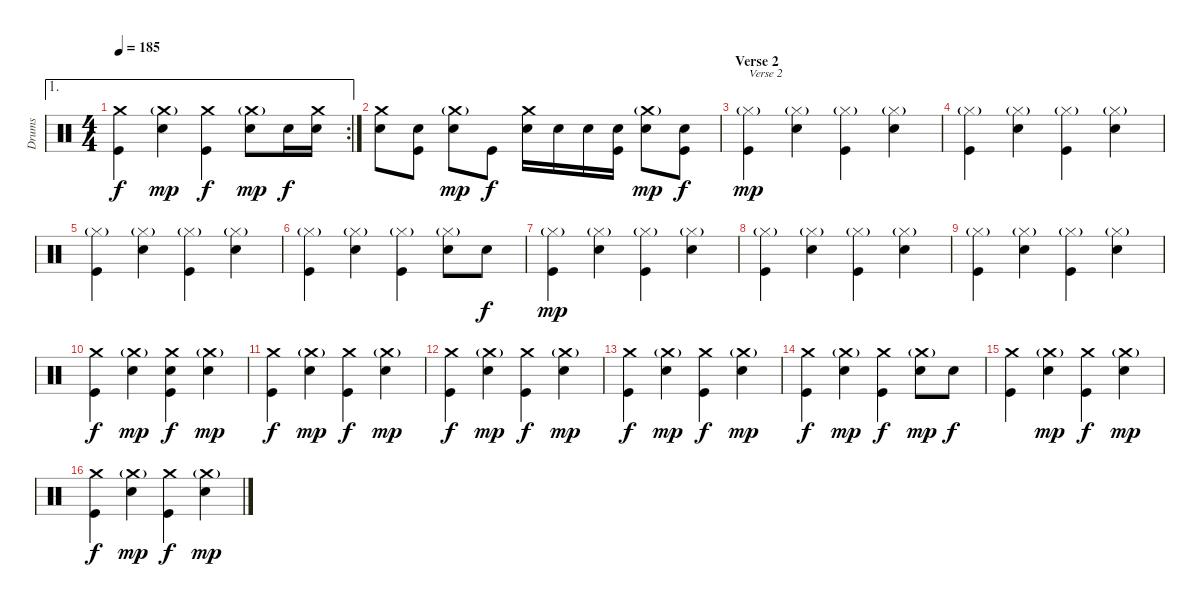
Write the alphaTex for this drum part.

\track ("Drums" "Drums") {instrument percussion}
\staff {score}
\articulation defaults
\ae 1
\rc 2
\ts (4 4)
\tempo 185
\clef neutral
\ks c
("Crash medium (hit)" "Kick (hit)").4{dy f} ("Crash medium (hit)"{g} "Snare (hit) 2").4{dy mp} ("Crash medium (hit)" "Kick (hit)").4{dy f} ("Crash medium (hit)"{g} "Snare (hit) 2").8{dy mp} "Snare (hit) 2".16{dy f} ("Crash medium (hit)" "Snare (hit) 2").16 |
("Crash medium (hit)" "Snare (hit) 2").8 ("Snare (hit) 2" "Kick (hit)").8 ("Crash medium (hit)"{g} "Snare (hit) 2").8{dy mp} "Kick (hit)".8{dy f} ("Crash medium (hit)" "Snare (hit) 2").16 "Snare (hit) 2".16 "Snare (hit) 2".16 ("Snare (hit) 2" "Kick (hit)").16 ("Crash medium (hit)"{g} "Snare (hit) 2").8{dy mp} ("Snare (hit) 2" "Kick (hit)").8{dy f} |
\section ("" "Verse 2")
("Hi-Hat (closed)"{g} "Kick (hit)").4{txt "Verse 2" dy mp} ("Hi-Hat (closed)"{g} "Snare (hit) 2").4 ("Hi-Hat (closed)"{g} "Kick (hit)").4 ("Hi-Hat (closed)"{g} "Snare (hit) 2").4 |
("Hi-Hat (closed)"{g} "Kick (hit)").4 ("Hi-Hat (closed)"{g} "Snare (hit) 2").4 ("Hi-Hat (closed)"{g} "Kick (hit)").4 ("Hi-Hat (closed)"{g} "Snare (hit) 2").4 |
("Hi-Hat (closed)"{g} "Kick (hit)").4 ("Hi-Hat (closed)"{g} "Snare (hit) 2").4 ("Hi-Hat (closed)"{g} "Kick (hit)").4 ("Hi-Hat (closed)"{g} "Snare (hit) 2").4 |
("Hi-Hat (closed)"{g} "Kick (hit)").4 ("Hi-Hat (closed)"{g} "Snare (hit) 2").4 ("Hi-Hat (closed)"{g} "Kick (hit)").4 ("Hi-Hat (closed)"{g} "Electric Snare (hit)").8 "Snare (hit) 2".8{dy f} |
("Hi-Hat (closed)"{g} "Kick (hit)").4{dy mp} ("Hi-Hat (closed)"{g} "Snare (hit) 2").4 ("Hi-Hat (closed)"{g} "Kick (hit)").4 ("Hi-Hat (closed)"{g} "Snare (hit) 2").4 |
("Hi-Hat (closed)"{g} "Kick (hit)").4 ("Hi-Hat (closed)"{g} "Snare (hit) 2").4 ("Hi-Hat (closed)"{g} "Kick (hit)").4 ("Hi-Hat (closed)"{g} "Snare (hit) 2").4 |
("Hi-Hat (closed)"{g} "Kick (hit)").4 ("Hi-Hat (closed)"{g} "Snare (hit) 2").4 ("Hi-Hat (closed)"{g} "Kick (hit)").4 ("Hi-Hat (closed)"{g} "Snare (hit) 2").4 |
("Crash medium (hit)" "Kick (hit)").4{dy f} ("Crash medium (hit)"{g} "Snare (hit) 2").4{dy mp} ("Crash medium (hit)" "Snare (hit) 2" "Kick (hit)").4{dy f} ("Crash medium (hit)"{g} "Snare (hit) 2").4{dy mp} |
("Crash medium (hit)" "Kick (hit)").4{dy f} ("Crash medium (hit)"{g} "Snare (hit) 2").4{dy mp} ("Crash medium (hit)" "Kick (hit)").4{dy f} ("Crash medium (hit)"{g} "Snare (hit) 2").4{dy mp} |
("Crash medium (hit)" "Kick (hit)").4{dy f} ("Crash medium (hit)"{g} "Snare (hit) 2").4{dy mp} ("Crash medium (hit)" "Kick (hit)").4{dy f} ("Crash medium (hit)"{g} "Snare (hit) 2").4{dy mp} |
("Crash medium (hit)" "Kick (hit)").4{dy f} ("Crash medium (hit)"{g} "Snare (hit) 2").4{dy mp} ("Crash medium (hit)" "Kick (hit)").4{dy f} ("Crash medium (hit)"{g} "Snare (hit) 2").4{dy mp} |
("Crash medium (hit)" "Kick (hit)").4{dy f} ("Crash medium (hit)"{g} "Snare (hit) 2").4{dy mp} ("Crash medium (hit)" "Kick (hit)").4{dy f} ("Crash medium (hit)"{g} "Electric Snare (hit)").8{dy mp} "Snare (hit) 2".8{dy f} |
("Crash medium (hit)" "Kick (hit)").4 ("Crash medium (hit)"{g} "Snare (hit) 2").4{dy mp} ("Crash medium (hit)" "Kick (hit)").4{dy f} ("Crash medium (hit)"{g} "Snare (hit) 2").4{dy mp} |
("Crash medium (hit)" "Kick (hit)").4{dy f} ("Crash medium (hit)"{g} "Snare (hit) 2").4{dy mp} ("Crash medium (hit)" "Kick (hit)").4{dy f} ("Crash medium (hit)"{g} "Snare (hit) 2").4{dy mp}
